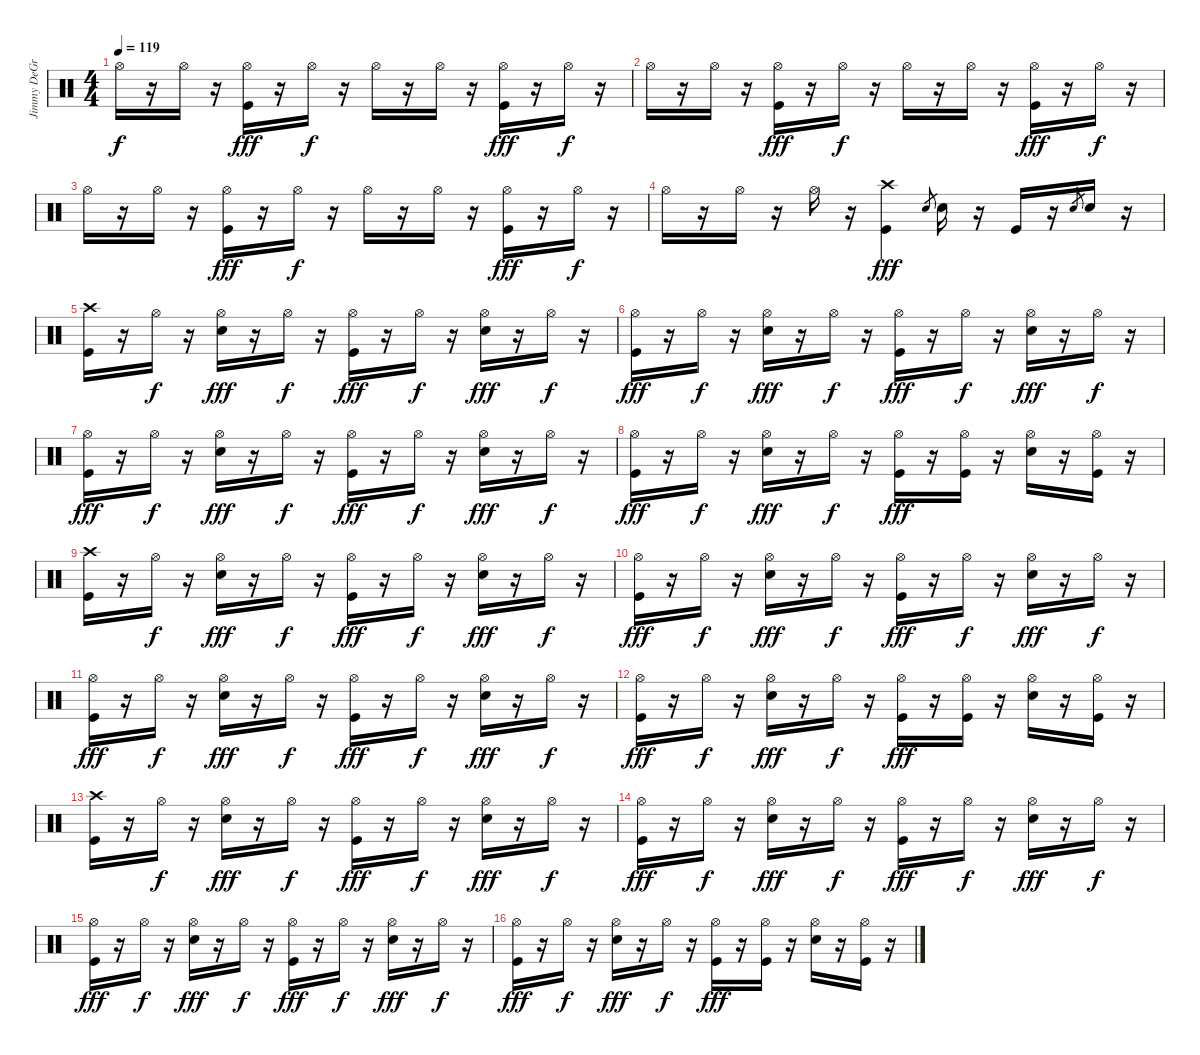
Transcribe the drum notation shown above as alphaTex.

\track ("Jimmy DeGrasso" "Jimmy DeGr") {instrument percussion}
\staff {score}
\articulation defaults
\ts (4 4)
\tempo 119
\clef neutral
\ks c "Hi-Hat (open)".16{dy f}
r.16 "Hi-Hat (open)".16 r.16 ("Kick (hit)" "Hi-Hat (open)").16{dy fff} r.16 "Hi-Hat (open)".16{dy f} r.16 "Hi-Hat (open)".16 r.16 "Hi-Hat (open)".16 r.16 ("Kick (hit)" "Hi-Hat (open)").16{dy fff} r.16 "Hi-Hat (open)".16{dy f} r.16 |
"Hi-Hat (open)".16 r.16 "Hi-Hat (open)".16 r.16 ("Kick (hit)" "Hi-Hat (open)").16{dy fff} r.16 "Hi-Hat (open)".16{dy f} r.16 "Hi-Hat (open)".16 r.16 "Hi-Hat (open)".16 r.16 ("Kick (hit)" "Hi-Hat (open)").16{dy fff} r.16 "Hi-Hat (open)".16{dy f} r.16 |
"Hi-Hat (open)".16 r.16 "Hi-Hat (open)".16 r.16 ("Kick (hit)" "Hi-Hat (open)").16{dy fff} r.16 "Hi-Hat (open)".16{dy f} r.16 "Hi-Hat (open)".16 r.16 "Hi-Hat (open)".16 r.16 ("Kick (hit)" "Hi-Hat (open)").16{dy fff} r.16 "Hi-Hat (open)".16{dy f} r.16 |
"Hi-Hat (open)".16 r.16 "Hi-Hat (open)".16 r.16 "Hi-Hat (open)".16 r.16 ("Kick (hit)" "Crash high (hit)").4{dy fff} "Electric Snare (hit)".8{gr} "Electric Snare (hit)".16 r.16 "Kick (hit)".16 r.16 "Electric Snare (hit)".8{gr} "Electric Snare (hit)".16 r.16 |
("Kick (hit)" "Crash high (hit)").16 r.16 "Hi-Hat (open)".16{dy f} r.16 ("Electric Snare (hit)" "Hi-Hat (open)").16{dy fff} r.16 "Hi-Hat (open)".16{dy f} r.16 ("Kick (hit)" "Hi-Hat (open)").16{dy fff} r.16 "Hi-Hat (open)".16{dy f} r.16 ("Electric Snare (hit)" "Hi-Hat (open)").16{dy fff} r.16 "Hi-Hat (open)".16{dy f} r.16 |
("Kick (hit)" "Hi-Hat (open)").16{dy fff} r.16 "Hi-Hat (open)".16{dy f} r.16 ("Electric Snare (hit)" "Hi-Hat (open)").16{dy fff} r.16 "Hi-Hat (open)".16{dy f} r.16 ("Kick (hit)" "Hi-Hat (open)").16{dy fff} r.16 "Hi-Hat (open)".16{dy f} r.16 ("Electric Snare (hit)" "Hi-Hat (open)").16{dy fff} r.16 "Hi-Hat (open)".16{dy f} r.16 |
("Kick (hit)" "Hi-Hat (open)").16{dy fff} r.16 "Hi-Hat (open)".16{dy f} r.16 ("Electric Snare (hit)" "Hi-Hat (open)").16{dy fff} r.16 "Hi-Hat (open)".16{dy f} r.16 ("Kick (hit)" "Hi-Hat (open)").16{dy fff} r.16 "Hi-Hat (open)".16{dy f} r.16 ("Electric Snare (hit)" "Hi-Hat (open)").16{dy fff} r.16 "Hi-Hat (open)".16{dy f} r.16 |
("Kick (hit)" "Hi-Hat (open)").16{dy fff} r.16 "Hi-Hat (open)".16{dy f} r.16 ("Electric Snare (hit)" "Hi-Hat (open)").16{dy fff} r.16 "Hi-Hat (open)".16{dy f} r.16 ("Kick (hit)" "Hi-Hat (open)").16{dy fff} r.16 ("Kick (hit)" "Hi-Hat (open)").16 r.16 ("Electric Snare (hit)" "Hi-Hat (open)").16 r.16 ("Kick (hit)" "Hi-Hat (open)").16 r.16 |
("Kick (hit)" "Crash high (hit)").16 r.16 "Hi-Hat (open)".16{dy f} r.16 ("Electric Snare (hit)" "Hi-Hat (open)").16{dy fff} r.16 "Hi-Hat (open)".16{dy f} r.16 ("Kick (hit)" "Hi-Hat (open)").16{dy fff} r.16 "Hi-Hat (open)".16{dy f} r.16 ("Electric Snare (hit)" "Hi-Hat (open)").16{dy fff} r.16 "Hi-Hat (open)".16{dy f} r.16 |
("Kick (hit)" "Hi-Hat (open)").16{dy fff} r.16 "Hi-Hat (open)".16{dy f} r.16 ("Electric Snare (hit)" "Hi-Hat (open)").16{dy fff} r.16 "Hi-Hat (open)".16{dy f} r.16 ("Kick (hit)" "Hi-Hat (open)").16{dy fff} r.16 "Hi-Hat (open)".16{dy f} r.16 ("Electric Snare (hit)" "Hi-Hat (open)").16{dy fff} r.16 "Hi-Hat (open)".16{dy f} r.16 |
("Kick (hit)" "Hi-Hat (open)").16{dy fff} r.16 "Hi-Hat (open)".16{dy f} r.16 ("Electric Snare (hit)" "Hi-Hat (open)").16{dy fff} r.16 "Hi-Hat (open)".16{dy f} r.16 ("Kick (hit)" "Hi-Hat (open)").16{dy fff} r.16 "Hi-Hat (open)".16{dy f} r.16 ("Electric Snare (hit)" "Hi-Hat (open)").16{dy fff} r.16 "Hi-Hat (open)".16{dy f} r.16 |
("Kick (hit)" "Hi-Hat (open)").16{dy fff} r.16 "Hi-Hat (open)".16{dy f} r.16 ("Electric Snare (hit)" "Hi-Hat (open)").16{dy fff} r.16 "Hi-Hat (open)".16{dy f} r.16 ("Kick (hit)" "Hi-Hat (open)").16{dy fff} r.16 ("Kick (hit)" "Hi-Hat (open)").16 r.16 ("Electric Snare (hit)" "Hi-Hat (open)").16 r.16 ("Kick (hit)" "Hi-Hat (open)").16 r.16 |
("Kick (hit)" "Crash high (hit)").16 r.16 "Hi-Hat (open)".16{dy f} r.16 ("Electric Snare (hit)" "Hi-Hat (open)").16{dy fff} r.16 "Hi-Hat (open)".16{dy f} r.16 ("Kick (hit)" "Hi-Hat (open)").16{dy fff} r.16 "Hi-Hat (open)".16{dy f} r.16 ("Electric Snare (hit)" "Hi-Hat (open)").16{dy fff} r.16 "Hi-Hat (open)".16{dy f} r.16 |
("Kick (hit)" "Hi-Hat (open)").16{dy fff} r.16 "Hi-Hat (open)".16{dy f} r.16 ("Electric Snare (hit)" "Hi-Hat (open)").16{dy fff} r.16 "Hi-Hat (open)".16{dy f} r.16 ("Kick (hit)" "Hi-Hat (open)").16{dy fff} r.16 "Hi-Hat (open)".16{dy f} r.16 ("Electric Snare (hit)" "Hi-Hat (open)").16{dy fff} r.16 "Hi-Hat (open)".16{dy f} r.16 |
("Kick (hit)" "Hi-Hat (open)").16{dy fff} r.16 "Hi-Hat (open)".16{dy f} r.16 ("Electric Snare (hit)" "Hi-Hat (open)").16{dy fff} r.16 "Hi-Hat (open)".16{dy f} r.16 ("Kick (hit)" "Hi-Hat (open)").16{dy fff} r.16 "Hi-Hat (open)".16{dy f} r.16 ("Electric Snare (hit)" "Hi-Hat (open)").16{dy fff} r.16 "Hi-Hat (open)".16{dy f} r.16 |
("Kick (hit)" "Hi-Hat (open)").16{dy fff} r.16 "Hi-Hat (open)".16{dy f} r.16 ("Electric Snare (hit)" "Hi-Hat (open)").16{dy fff} r.16 "Hi-Hat (open)".16{dy f} r.16 ("Kick (hit)" "Hi-Hat (open)").16{dy fff} r.16 ("Kick (hit)" "Hi-Hat (open)").16 r.16 ("Electric Snare (hit)" "Hi-Hat (open)").16 r.16 ("Kick (hit)" "Hi-Hat (open)").16 r.16
